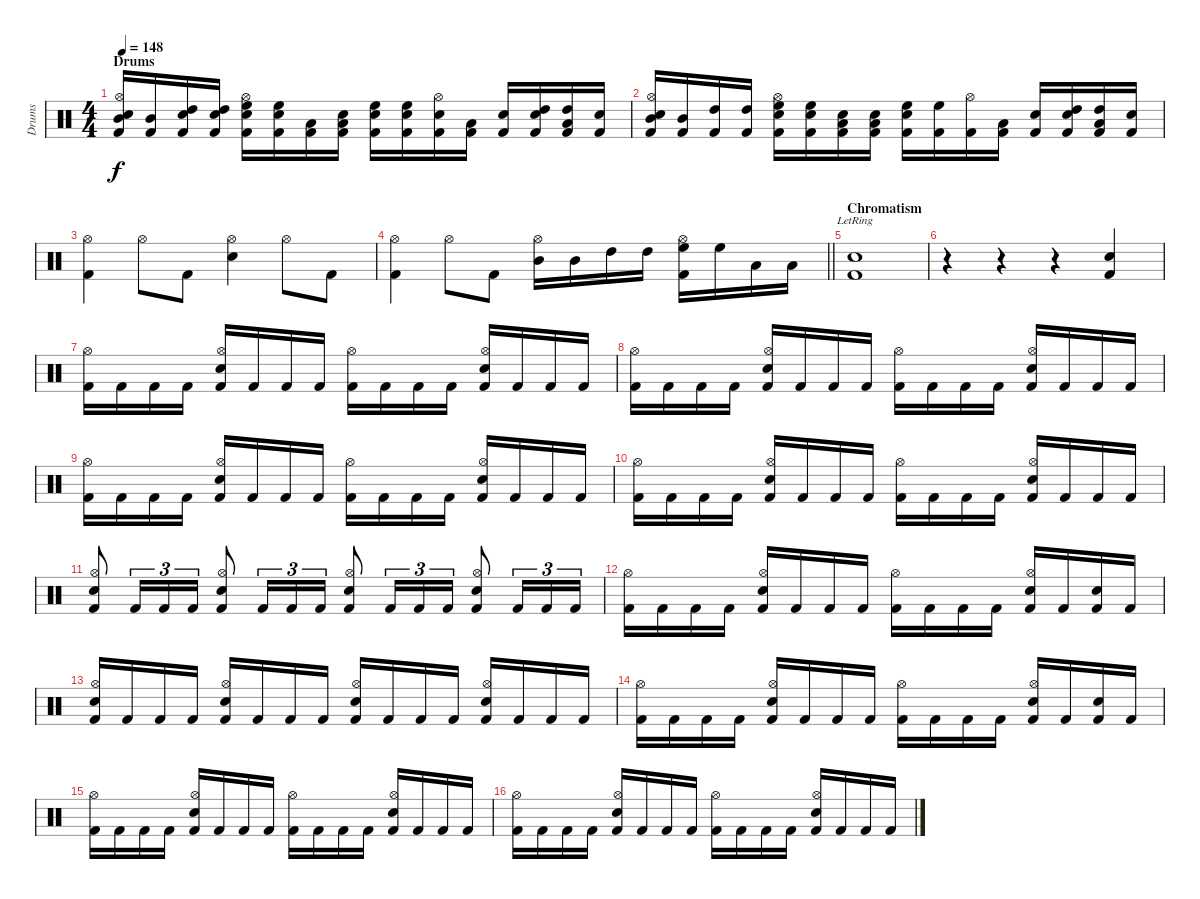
\track ("Drums" "Drums") {instrument percussion}
\staff {score}
\articulation defaults
\ts (4 4)
\section ("" "Drums")
\tempo 148
\clef neutral
\ks c
("Snare (hit) 2" "Hi-Hat (open)" "Mid Tom (hit)" "Kick (hit) 2").16{dy f} ("Mid Tom (hit)" "Kick (hit) 2").16 ("Snare (hit) 2" "High Tom (hit)" "Kick (hit) 2").16 ("Snare (hit) 2" "High Tom (hit)" "Kick (hit) 2").16 ("Snare (hit) 2" "Hi-Hat (open)" "High Floor Tom (hit)" "Kick (hit) 2").16 ("Snare (hit) 2" "High Floor Tom (hit)" "Kick (hit) 2").16 ("Low Tom (hit)" "Kick (hit) 2").16 ("Snare (hit) 2" "Low Tom (hit)" "Kick (hit) 2").16 ("Snare (hit) 2" "High Floor Tom (hit)" "Kick (hit) 2").16 ("Snare (hit) 2" "High Floor Tom (hit)" "Kick (hit) 2").16 ("Snare (hit) 2" "Hi-Hat (open)" "Kick (hit) 2").16 ("Low Tom (hit)" "Kick (hit) 2").16 ("Snare (hit) 2" "Kick (hit) 2").16 ("Snare (hit) 2" "High Tom (hit)" "Kick (hit) 2").16 ("Low Tom (hit)" "High Tom (hit)" "Kick (hit) 2").16 ("Snare (hit) 2" "Kick (hit) 2").16 |
("Snare (hit) 2" "Hi-Hat (open)" "Mid Tom (hit)" "Kick (hit) 2").16 ("Mid Tom (hit)" "Kick (hit) 2").16 ("High Tom (hit)" "Kick (hit) 2").16 ("High Tom (hit)" "Kick (hit) 2").16 ("Snare (hit) 2" "Hi-Hat (open)" "High Floor Tom (hit)" "Kick (hit) 2").16 ("Snare (hit) 2" "High Floor Tom (hit)" "Kick (hit) 2").16 ("Snare (hit) 2" "Low Tom (hit)" "Kick (hit) 2").16 ("Snare (hit) 2" "Low Tom (hit)" "Kick (hit) 2").16 ("Snare (hit) 2" "High Floor Tom (hit)" "Kick (hit) 2").16 ("High Floor Tom (hit)" "Kick (hit) 2").16 ("Hi-Hat (open)" "Kick (hit) 2").16 ("Low Tom (hit)" "Kick (hit) 2").16 ("Snare (hit) 2" "Kick (hit) 2").16 ("Snare (hit) 2" "High Tom (hit)" "Kick (hit) 2").16 ("Low Tom (hit)" "High Tom (hit)" "Kick (hit) 2").16 ("Snare (hit) 2" "Kick (hit) 2").16 |
("Hi-Hat (open)" "Kick (hit) 2").4 "Hi-Hat (open)".8 "Kick (hit) 2".8 ("Hi-Hat (open)" "Snare (hit) 2").4 "Hi-Hat (open)".8 "Kick (hit) 2".8 |
\barLineRight lightlight
("Hi-Hat (open)" "Kick (hit) 2").4 "Hi-Hat (open)".8 "Kick (hit) 2".8 ("Hi-Hat (open)" "Mid Tom (hit)").16 "Mid Tom (hit)".16 "High Tom (hit)".16 "High Tom (hit)".16 ("Hi-Hat (open)" "High Floor Tom (hit)" "Kick (hit) 2").16 "High Floor Tom (hit)".16 "Low Tom (hit)".16 "Low Tom (hit)".16 |
\section ("" "Chromatism")
("Snare (hit) 2"{lr} "Kick (hit) 2"{lr}).1 |
r.4 r.4 r.4 ("Snare (hit) 2" "Kick (hit) 2").4 |
("Hi-Hat (open)" "Kick (hit) 2").16 "Kick (hit) 2".16 "Kick (hit) 2".16 "Kick (hit) 2".16 ("Hi-Hat (open)" "Snare (hit) 2" "Kick (hit) 2").16 "Kick (hit) 2".16 "Kick (hit) 2".16 "Kick (hit) 2".16 ("Hi-Hat (open)" "Kick (hit) 2").16 "Kick (hit) 2".16 "Kick (hit) 2".16 "Kick (hit) 2".16 ("Hi-Hat (open)" "Snare (hit) 2" "Kick (hit) 2").16 "Kick (hit) 2".16 "Kick (hit) 2".16 "Kick (hit) 2".16 |
("Hi-Hat (open)" "Kick (hit) 2").16 "Kick (hit) 2".16 "Kick (hit) 2".16 "Kick (hit) 2".16 ("Hi-Hat (open)" "Snare (hit) 2" "Kick (hit) 2").16 "Kick (hit) 2".16 "Kick (hit) 2".16 "Kick (hit) 2".16 ("Hi-Hat (open)" "Kick (hit) 2").16 "Kick (hit) 2".16 "Kick (hit) 2".16 "Kick (hit) 2".16 ("Hi-Hat (open)" "Snare (hit) 2" "Kick (hit) 2").16 "Kick (hit) 2".16 "Kick (hit) 2".16 "Kick (hit) 2".16 |
("Hi-Hat (open)" "Kick (hit) 2").16 "Kick (hit) 2".16 "Kick (hit) 2".16 "Kick (hit) 2".16 ("Hi-Hat (open)" "Snare (hit) 2" "Kick (hit) 2").16 "Kick (hit) 2".16 "Kick (hit) 2".16 "Kick (hit) 2".16 ("Hi-Hat (open)" "Kick (hit) 2").16 "Kick (hit) 2".16 "Kick (hit) 2".16 "Kick (hit) 2".16 ("Hi-Hat (open)" "Snare (hit) 2" "Kick (hit) 2").16 "Kick (hit) 2".16 "Kick (hit) 2".16 "Kick (hit) 2".16 |
("Hi-Hat (open)" "Kick (hit) 2").16 "Kick (hit) 2".16 "Kick (hit) 2".16 "Kick (hit) 2".16 ("Hi-Hat (open)" "Snare (hit) 2" "Kick (hit) 2").16 "Kick (hit) 2".16 "Kick (hit) 2".16 "Kick (hit) 2".16 ("Hi-Hat (open)" "Kick (hit) 2").16 "Kick (hit) 2".16 "Kick (hit) 2".16 "Kick (hit) 2".16 ("Hi-Hat (open)" "Snare (hit) 2" "Kick (hit) 2").16 "Kick (hit) 2".16 "Kick (hit) 2".16 "Kick (hit) 2".16 |
("Hi-Hat (open)" "Snare (hit) 2" "Kick (hit) 2").8 "Kick (hit) 2".16{tu (3 2)} "Kick (hit) 2".16{tu (3 2)} "Kick (hit) 2".16{tu (3 2)} ("Hi-Hat (open)" "Snare (hit) 2" "Kick (hit) 2").8 "Kick (hit) 2".16{tu (3 2)} "Kick (hit) 2".16{tu (3 2)} "Kick (hit) 2".16{tu (3 2)} ("Hi-Hat (open)" "Snare (hit) 2" "Kick (hit) 2").8 "Kick (hit) 2".16{tu (3 2)} "Kick (hit) 2".16{tu (3 2)} "Kick (hit) 2".16{tu (3 2)} ("Hi-Hat (open)" "Snare (hit) 2" "Kick (hit) 2").8 "Kick (hit) 2".16{tu (3 2)} "Kick (hit) 2".16{tu (3 2)} "Kick (hit) 2".16{tu (3 2)} |
("Hi-Hat (open)" "Kick (hit) 2").16 "Kick (hit) 2".16 "Kick (hit) 2".16 "Kick (hit) 2".16 ("Hi-Hat (open)" "Snare (hit) 2" "Kick (hit) 2").16 "Kick (hit) 2".16 "Kick (hit) 2".16 "Kick (hit) 2".16 ("Hi-Hat (open)" "Kick (hit) 2").16 "Kick (hit) 2".16 "Kick (hit) 2".16 "Kick (hit) 2".16 ("Hi-Hat (open)" "Snare (hit) 2" "Kick (hit) 2").16 "Kick (hit) 2".16 ("Snare (hit) 2" "Kick (hit) 2").16 "Kick (hit) 2".16 |
("Hi-Hat (open)" "Snare (hit) 2" "Kick (hit) 2").16 "Kick (hit) 2".16 "Kick (hit) 2".16 "Kick (hit) 2".16 ("Hi-Hat (open)" "Snare (hit) 2" "Kick (hit) 2").16 "Kick (hit) 2".16 "Kick (hit) 2".16 "Kick (hit) 2".16 ("Hi-Hat (open)" "Snare (hit) 2" "Kick (hit) 2").16 "Kick (hit) 2".16 "Kick (hit) 2".16 "Kick (hit) 2".16 ("Hi-Hat (open)" "Snare (hit) 2" "Kick (hit) 2").16 "Kick (hit) 2".16 "Kick (hit) 2".16 "Kick (hit) 2".16 |
("Hi-Hat (open)" "Kick (hit) 2").16 "Kick (hit) 2".16 "Kick (hit) 2".16 "Kick (hit) 2".16 ("Hi-Hat (open)" "Snare (hit) 2" "Kick (hit) 2").16 "Kick (hit) 2".16 "Kick (hit) 2".16 "Kick (hit) 2".16 ("Hi-Hat (open)" "Kick (hit) 2").16 "Kick (hit) 2".16 "Kick (hit) 2".16 "Kick (hit) 2".16 ("Hi-Hat (open)" "Snare (hit) 2" "Kick (hit) 2").16 "Kick (hit) 2".16 ("Snare (hit) 2" "Kick (hit) 2").16 "Kick (hit) 2".16 |
("Hi-Hat (open)" "Kick (hit) 2").16 "Kick (hit) 2".16 "Kick (hit) 2".16 "Kick (hit) 2".16 ("Hi-Hat (open)" "Snare (hit) 2" "Kick (hit) 2").16 "Kick (hit) 2".16 "Kick (hit) 2".16 "Kick (hit) 2".16 ("Hi-Hat (open)" "Kick (hit) 2").16 "Kick (hit) 2".16 "Kick (hit) 2".16 "Kick (hit) 2".16 ("Hi-Hat (open)" "Snare (hit) 2" "Kick (hit) 2").16 "Kick (hit) 2".16 "Kick (hit) 2".16 "Kick (hit) 2".16 |
("Hi-Hat (open)" "Kick (hit) 2").16 "Kick (hit) 2".16 "Kick (hit) 2".16 "Kick (hit) 2".16 ("Hi-Hat (open)" "Snare (hit) 2" "Kick (hit) 2").16 "Kick (hit) 2".16 "Kick (hit) 2".16 "Kick (hit) 2".16 ("Hi-Hat (open)" "Kick (hit) 2").16 "Kick (hit) 2".16 "Kick (hit) 2".16 "Kick (hit) 2".16 ("Hi-Hat (open)" "Snare (hit) 2" "Kick (hit) 2").16 "Kick (hit) 2".16 "Kick (hit) 2".16 "Kick (hit) 2".16
